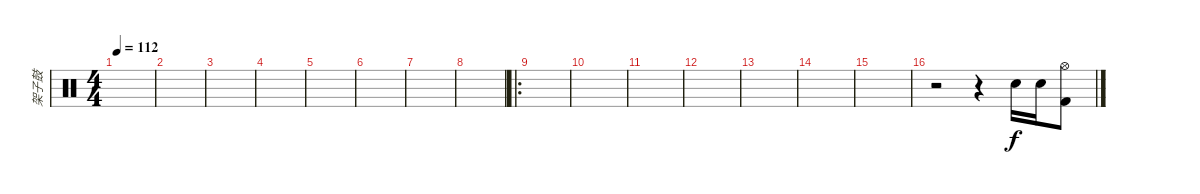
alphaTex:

\track ("架子鼓" "架子鼓") {instrument percussion}
\staff {score}
\articulation defaults
\ts (4 4)
\tempo 112
\clef neutral
\ks c
|
|
|
|
|
|
|
|
\ro
|
|
|
|
|
|
|
r.2 r.4 "Snare (hit) 2".16 "Snare (hit) 2".16 ("Hi-Hat (open)" "Kick (hit) 2").8
